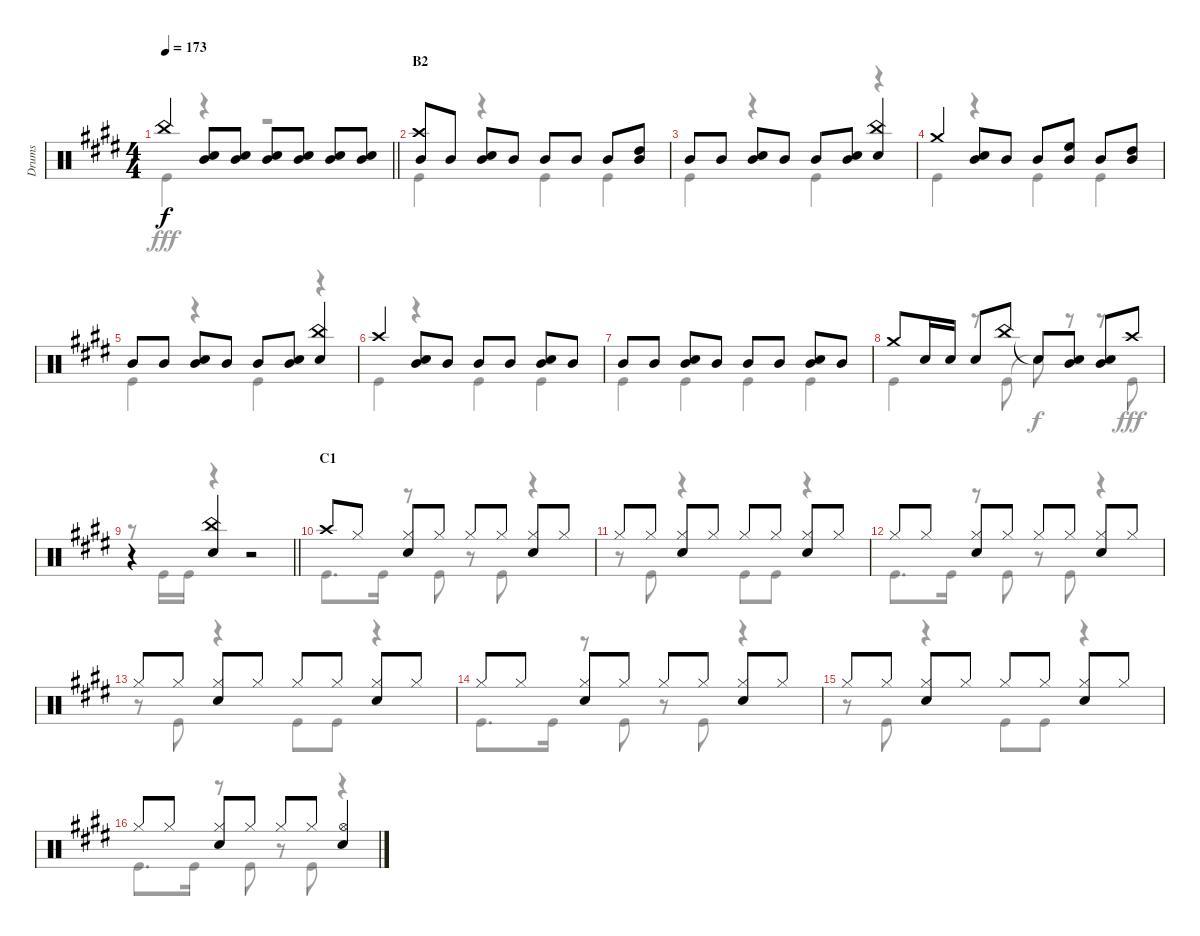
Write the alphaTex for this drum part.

\track ("Drums" "Drums") {instrument percussion}
\staff {score}
\articulation defaults
\voice
\ts (4 4)
\tempo 173
\clef neutral
\barLineRight lightlight
\ks e "China (hit)".4{dy f}
("Mid Tom (hit)" "Snare (hit) 2").8 ("Mid Tom (hit)" "Snare (hit) 2").8 ("Mid Tom (hit)" "Snare (hit) 2").8 ("Mid Tom (hit)" "Snare (hit) 2").8 ("Mid Tom (hit)" "Snare (hit) 2").8 ("Mid Tom (hit)" "Snare (hit) 2").8 |
\section ("" "B2")
("Crash high (hit)" "Mid Tom (hit)").8 "Mid Tom (hit)".8 ("Mid Tom (hit)" "Snare (hit) 2").8 "Mid Tom (hit)".8 "Mid Tom (hit)".8 "Mid Tom (hit)".8 "Mid Tom (hit)".8 ("High Tom (hit)" "Mid Tom (hit)").8 |
"Mid Tom (hit)".8 "Mid Tom (hit)".8 ("Mid Tom (hit)" "Snare (hit) 2").8 "Mid Tom (hit)".8 "Mid Tom (hit)".8 ("Mid Tom (hit)" "Snare (hit) 2").8 ("China (hit)" "Snare (hit) 2").4 |
"Crash medium (hit)".4 ("Mid Tom (hit)" "Snare (hit) 2").8 "Mid Tom (hit)".8 "Mid Tom (hit)".8 ("High Floor Tom (hit)" "Mid Tom (hit)").8 "Mid Tom (hit)".8 ("High Tom (hit)" "Mid Tom (hit)").8 |
"Mid Tom (hit)".8 "Mid Tom (hit)".8 ("Mid Tom (hit)" "Snare (hit) 2").8 "Mid Tom (hit)".8 "Mid Tom (hit)".8 ("Mid Tom (hit)" "Snare (hit) 2").8 ("China (hit)" "Snare (hit) 2").4 |
"Crash high (hit)".4 ("Mid Tom (hit)" "Snare (hit) 2").8 "Mid Tom (hit)".8 "Mid Tom (hit)".8 "Mid Tom (hit)".8 ("Mid Tom (hit)" "Snare (hit) 2").8 "Mid Tom (hit)".8 |
"Mid Tom (hit)".8 "Mid Tom (hit)".8 ("Mid Tom (hit)" "Snare (hit) 2").8 "Mid Tom (hit)".8 "Mid Tom (hit)".8 "Mid Tom (hit)".8 ("Mid Tom (hit)" "Snare (hit) 2").8 "Mid Tom (hit)".8 |
"Crash medium (hit)".8 "Snare (hit) 2".16 "Snare (hit) 2".16 "Snare (hit) 2".8 "China (hit)".8 "Snare (hit)"{t}.8 ("Mid Tom (hit)" "Snare (hit) 2").8 ("Mid Tom (hit)" "Snare (hit) 2").8 "Crash high (hit)".8 |
\barLineRight lightlight
r.4 ("China (hit)" "Snare (hit) 2").4 r.2 |
\section ("" "C1")
"Crash high (hit)".8 "Hi-Hat (closed)".8 ("Hi-Hat (closed)" "Snare (hit) 2").8 "Hi-Hat (closed)".8 "Hi-Hat (closed)".8 "Hi-Hat (closed)".8 ("Hi-Hat (closed)" "Snare (hit) 2").8 "Hi-Hat (closed)".8 |
"Hi-Hat (closed)".8 "Hi-Hat (closed)".8 ("Hi-Hat (closed)" "Snare (hit) 2").8 "Hi-Hat (closed)".8 "Hi-Hat (closed)".8 "Hi-Hat (closed)".8 ("Hi-Hat (closed)" "Snare (hit) 2").8 "Hi-Hat (closed)".8 |
"Hi-Hat (closed)".8 "Hi-Hat (closed)".8 ("Hi-Hat (closed)" "Snare (hit) 2").8 "Hi-Hat (closed)".8 "Hi-Hat (closed)".8 "Hi-Hat (closed)".8 ("Hi-Hat (closed)" "Snare (hit) 2").8 "Hi-Hat (closed)".8 |
"Hi-Hat (closed)".8 "Hi-Hat (closed)".8 ("Hi-Hat (closed)" "Snare (hit) 2").8 "Hi-Hat (closed)".8 "Hi-Hat (closed)".8 "Hi-Hat (closed)".8 ("Hi-Hat (closed)" "Snare (hit) 2").8 "Hi-Hat (closed)".8 |
"Hi-Hat (closed)".8 "Hi-Hat (closed)".8 ("Hi-Hat (closed)" "Snare (hit) 2").8 "Hi-Hat (closed)".8 "Hi-Hat (closed)".8 "Hi-Hat (closed)".8 ("Hi-Hat (closed)" "Snare (hit) 2").8 "Hi-Hat (closed)".8 |
"Hi-Hat (closed)".8 "Hi-Hat (closed)".8 ("Hi-Hat (closed)" "Snare (hit) 2").8 "Hi-Hat (closed)".8 "Hi-Hat (closed)".8 "Hi-Hat (closed)".8 ("Hi-Hat (closed)" "Snare (hit) 2").8 "Hi-Hat (closed)".8 |
"Hi-Hat (closed)".8 "Hi-Hat (closed)".8 ("Hi-Hat (closed)" "Snare (hit) 2").8 "Hi-Hat (closed)".8 "Hi-Hat (closed)".8 "Hi-Hat (closed)".8 ("Hi-Hat (open)" "Snare (hit) 2").4
\voice
\clef neutral
\ottava regular
\simile none
\barLineRight lightlight
\ks e "Kick (hit)".4{dy fff}
r.4 r.2 |
"Kick (hit)".4 r.4 "Kick (hit)".4 "Kick (hit)".4 |
"Kick (hit)".4 r.4 "Kick (hit)".4 r.4 |
"Kick (hit)".4 r.4 "Kick (hit)".4 "Kick (hit)".4 |
"Kick (hit)".4 r.4 "Kick (hit)".4 r.4 |
"Kick (hit)".4 r.4 "Kick (hit)".4 "Kick (hit)".4 |
"Kick (hit)".4 "Kick (hit)".4 "Kick (hit)".4 "Kick (hit)".4 |
"Kick (hit)".4 r.8 "Kick (hit)".8 "Snare (hit)"{t}.8{dy f} r.8 r.8 "Kick (hit)".8{dy fff} |
\barLineRight lightlight
r.8 "Kick (hit)".16 "Kick (hit)".16 r.4 r.2 |
"Kick (hit)".8{d} "Kick (hit)".16 r.8 "Kick (hit)".8 r.8 "Kick (hit)".8 r.4 |
r.8 "Kick (hit)".8 r.4 "Kick (hit)".8 "Kick (hit)".8 r.4 |
"Kick (hit)".8{d} "Kick (hit)".16 r.8 "Kick (hit)".8 r.8 "Kick (hit)".8 r.4 |
r.8 "Kick (hit)".8 r.4 "Kick (hit)".8 "Kick (hit)".8 r.4 |
"Kick (hit)".8{d} "Kick (hit)".16 r.8 "Kick (hit)".8 r.8 "Kick (hit)".8 r.4 |
r.8 "Kick (hit)".8 r.4 "Kick (hit)".8 "Kick (hit)".8 r.4 |
"Kick (hit)".8{d} "Kick (hit)".16 r.8 "Kick (hit)".8 r.8 "Kick (hit)".8 r.4
